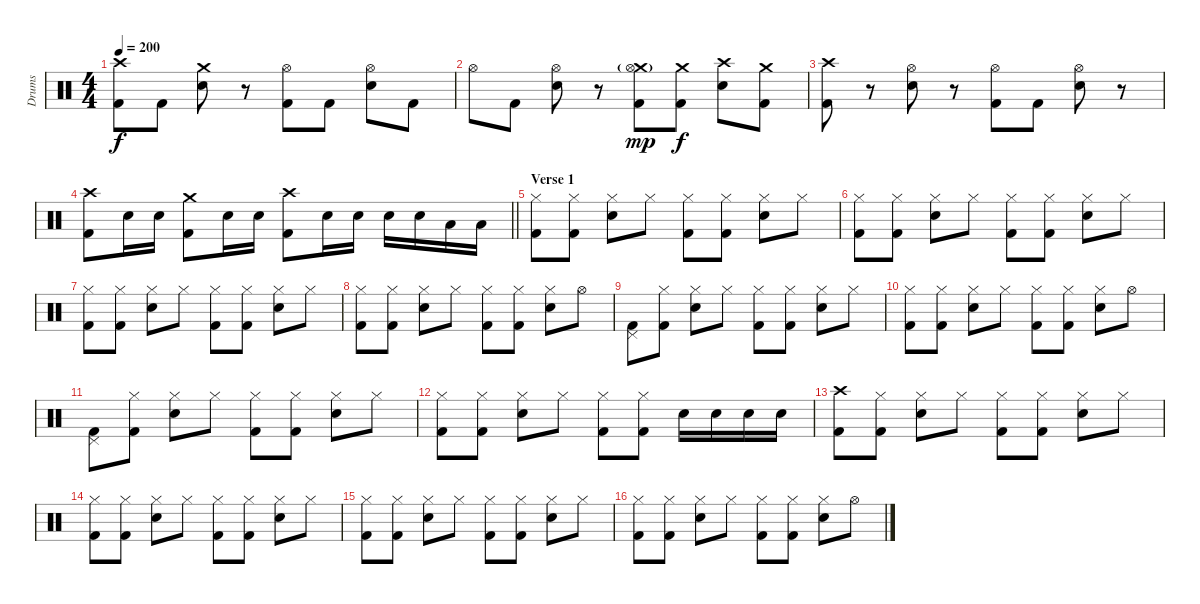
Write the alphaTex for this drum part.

\track ("Drums" "Drums") {instrument percussion}
\staff {score}
\articulation defaults
\ts (4 4)
\tempo 200
\clef neutral
\ks c
("Crash high (hit)" "Kick (hit) 2").8{dy f} "Kick (hit) 2".8 ("Crash medium (hit)" "Electric Snare (hit)").8 r.8 ("Hi-Hat (open)" "Kick (hit) 2").8 "Kick (hit) 2".8 ("Hi-Hat (open)" "Electric Snare (hit)").8 "Kick (hit) 2".8 |
"Hi-Hat (open)".8 "Kick (hit) 2".8 ("Hi-Hat (open)" "Electric Snare (hit)").8 r.8 ("Crash medium (hit)"{g} "Hi-Hat (open)" "Kick (hit) 2").8{dy mp} ("Crash medium (hit)" "Kick (hit) 2").8{dy f} ("Crash high (hit)" "Electric Snare (hit)").8 ("Crash medium (hit)" "Kick (hit) 2").8 |
("Crash high (hit)" "Kick (hit) 2").8 r.8 ("Hi-Hat (open)" "Electric Snare (hit)").8 r.8 ("Hi-Hat (open)" "Kick (hit) 2").8 "Kick (hit) 2".8 ("Hi-Hat (open)" "Electric Snare (hit)").8 r.8 |
\barLineRight lightlight
("Crash high (hit)" "Kick (hit) 2").8 "Electric Snare (hit)".16 "Electric Snare (hit)".16 ("Crash medium (hit)" "Kick (hit) 2").8 "Electric Snare (hit)".16 "Electric Snare (hit)".16 ("Crash high (hit)" "Kick (hit) 2").8 "Electric Snare (hit)".16 "Electric Snare (hit)".16 "Electric Snare (hit)".16 "Electric Snare (hit)".16 "Low Tom (hit)".16 "Low Tom (hit)".16 |
\section ("" "Verse 1")
("Hi-Hat (closed)" "Kick (hit) 2").8 ("Hi-Hat (closed)" "Kick (hit) 2").8 ("Hi-Hat (closed)" "Electric Snare (hit)").8 "Hi-Hat (closed)".8 ("Hi-Hat (closed)" "Kick (hit) 2").8 ("Hi-Hat (closed)" "Kick (hit) 2").8 ("Hi-Hat (closed)" "Electric Snare (hit)").8 "Hi-Hat (closed)".8 |
("Hi-Hat (closed)" "Kick (hit) 2").8 ("Hi-Hat (closed)" "Kick (hit) 2").8 ("Hi-Hat (closed)" "Electric Snare (hit)").8 "Hi-Hat (closed)".8 ("Hi-Hat (closed)" "Kick (hit) 2").8 ("Hi-Hat (closed)" "Kick (hit) 2").8 ("Hi-Hat (closed)" "Electric Snare (hit)").8 "Hi-Hat (closed)".8 |
("Hi-Hat (closed)" "Kick (hit) 2").8 ("Hi-Hat (closed)" "Kick (hit) 2").8 ("Hi-Hat (closed)" "Electric Snare (hit)").8 "Hi-Hat (closed)".8 ("Hi-Hat (closed)" "Kick (hit) 2").8 ("Hi-Hat (closed)" "Kick (hit) 2").8 ("Hi-Hat (closed)" "Electric Snare (hit)").8 "Hi-Hat (closed)".8 |
("Hi-Hat (closed)" "Kick (hit) 2").8 ("Hi-Hat (closed)" "Kick (hit) 2").8 ("Hi-Hat (closed)" "Electric Snare (hit)").8 "Hi-Hat (closed)".8 ("Hi-Hat (closed)" "Kick (hit) 2").8 ("Hi-Hat (closed)" "Kick (hit) 2").8 ("Hi-Hat (closed)" "Electric Snare (hit)").8 "Hi-Hat (open)".8 |
("Pedal Hi-Hat (hit)" "Kick (hit) 2").8 ("Hi-Hat (closed)" "Kick (hit) 2").8 ("Hi-Hat (closed)" "Electric Snare (hit)").8 "Hi-Hat (closed)".8 ("Hi-Hat (closed)" "Kick (hit) 2").8 ("Hi-Hat (closed)" "Kick (hit) 2").8 ("Hi-Hat (closed)" "Electric Snare (hit)").8 "Hi-Hat (closed)".8 |
("Hi-Hat (closed)" "Kick (hit) 2").8 ("Hi-Hat (closed)" "Kick (hit) 2").8 ("Hi-Hat (closed)" "Electric Snare (hit)").8 "Hi-Hat (closed)".8 ("Hi-Hat (closed)" "Kick (hit) 2").8 ("Hi-Hat (closed)" "Kick (hit) 2").8 ("Hi-Hat (closed)" "Electric Snare (hit)").8 "Hi-Hat (open)".8 |
("Pedal Hi-Hat (hit)" "Kick (hit) 2").8 ("Hi-Hat (closed)" "Kick (hit) 2").8 ("Hi-Hat (closed)" "Electric Snare (hit)").8 "Hi-Hat (closed)".8 ("Hi-Hat (closed)" "Kick (hit) 2").8 ("Hi-Hat (closed)" "Kick (hit) 2").8 ("Hi-Hat (closed)" "Electric Snare (hit)").8 "Hi-Hat (closed)".8 |
("Hi-Hat (closed)" "Kick (hit) 2").8 ("Hi-Hat (closed)" "Kick (hit) 2").8 ("Hi-Hat (closed)" "Electric Snare (hit)").8 "Hi-Hat (closed)".8 ("Hi-Hat (closed)" "Kick (hit) 2").8 ("Hi-Hat (closed)" "Kick (hit) 2").8 "Electric Snare (hit)".16 "Electric Snare (hit)".16 "Electric Snare (hit)".16 "Electric Snare (hit)".16 |
("Crash high (hit)" "Kick (hit) 2").8 ("Hi-Hat (closed)" "Kick (hit) 2").8 ("Hi-Hat (closed)" "Electric Snare (hit)").8 "Hi-Hat (closed)".8 ("Hi-Hat (closed)" "Kick (hit) 2").8 ("Hi-Hat (closed)" "Kick (hit) 2").8 ("Hi-Hat (closed)" "Electric Snare (hit)").8 "Hi-Hat (closed)".8 |
("Hi-Hat (closed)" "Kick (hit) 2").8 ("Hi-Hat (closed)" "Kick (hit) 2").8 ("Hi-Hat (closed)" "Electric Snare (hit)").8 "Hi-Hat (closed)".8 ("Hi-Hat (closed)" "Kick (hit) 2").8 ("Hi-Hat (closed)" "Kick (hit) 2").8 ("Hi-Hat (closed)" "Electric Snare (hit)").8 "Hi-Hat (closed)".8 |
("Hi-Hat (closed)" "Kick (hit) 2").8 ("Hi-Hat (closed)" "Kick (hit) 2").8 ("Hi-Hat (closed)" "Electric Snare (hit)").8 "Hi-Hat (closed)".8 ("Hi-Hat (closed)" "Kick (hit) 2").8 ("Hi-Hat (closed)" "Kick (hit) 2").8 ("Hi-Hat (closed)" "Electric Snare (hit)").8 "Hi-Hat (closed)".8 |
("Hi-Hat (closed)" "Kick (hit) 2").8 ("Hi-Hat (closed)" "Kick (hit) 2").8 ("Hi-Hat (closed)" "Electric Snare (hit)").8 "Hi-Hat (closed)".8 ("Hi-Hat (closed)" "Kick (hit) 2").8 ("Hi-Hat (closed)" "Kick (hit) 2").8 ("Hi-Hat (closed)" "Electric Snare (hit)").8 "Hi-Hat (open)".8
